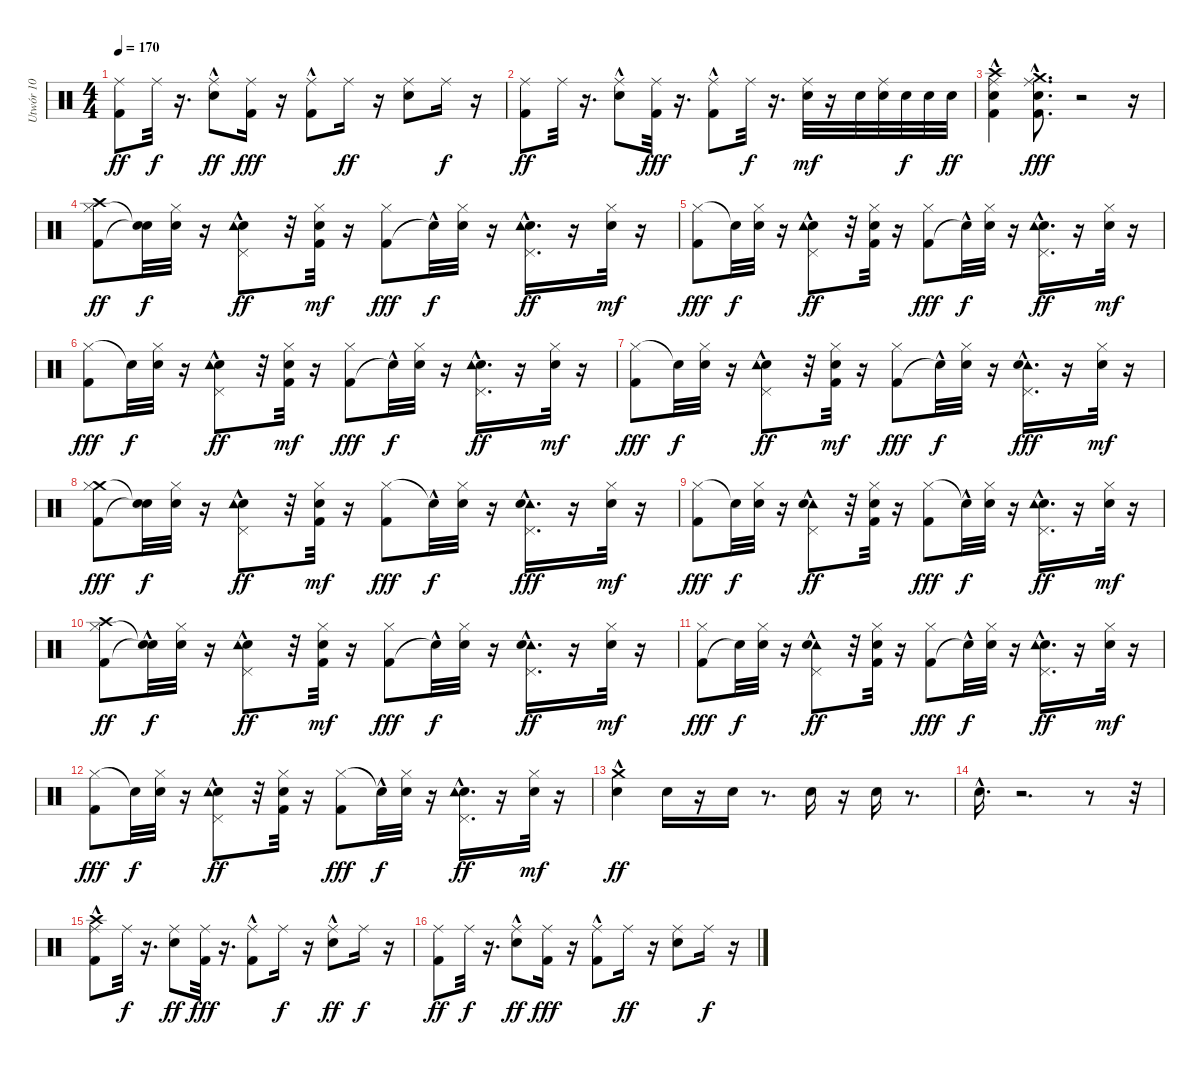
\track ("Utwór 10" "Utwór 10") {instrument percussion}
\staff {score}
\articulation defaults
\ts (4 4)
\tempo 170
\clef neutral
\ks c
("Kick (hit) 2" "Ride (middle)").8{dy ff} "Ride (middle)".32{dy f} r.16{d} ("Ride (middle)" "Snare (hit) 2"{hac}).8{dy ff} ("Ride (middle)" "Kick (hit) 2").16{dy fff} r.16 ("Ride (middle)" "Kick (hit) 2"{hac}).8 "Ride (middle)".16{dy ff} r.16 ("Snare (hit) 2" "Ride (middle)").8 "Ride (middle)".16{dy f} r.16 |
("Kick (hit) 2" "Ride (middle)").8{dy ff} "Ride (middle)".32 r.16{d} ("Snare (hit) 2"{hac} "Ride (middle)").8 ("Ride (middle)" "Kick (hit) 2").32{dy fff} r.16{d} ("Ride (middle)" "Kick (hit) 2"{hac}).8 "Ride (middle)".32{dy f} r.16{d} ("Ride (middle)" "Snare (hit) 2").32{dy mf} r.16 "Snare (hit) 2".32 ("Snare (hit) 2" "Ride (middle)").32 "Snare (hit) 2".32{dy f} "Snare (hit) 2".32 "Snare (hit) 2".32{dy ff} |
("Kick (hit) 2"{hac} "Ride (middle)" "Crash high (hit)" "Snare (hit) 2").4 ("Crash medium (hit)" "Kick (hit) 2"{hac} "Ride (middle)" "Snare (hit) 2").8{d dy fff} r.2 r.16 |
("Kick (hit) 2" "Hi-Hat (closed)" "Crash high (hit)").8{dy ff} ("Snare (hit)"{t} "Snare (hit)"{t}).32{dy f} ("Snare (hit) 2" "Hi-Hat (closed)").32 r.16 ("Snare (hit) 2"{hac} "Pedal Hi-Hat (hit)" "Tambourine (hit)").8{dy ff} r.32 ("Kick (hit) 2" "Snare (hit) 2" "Hi-Hat (closed)").32{dy mf} r.16 ("Kick (hit) 2" "Hi-Hat (closed)").8{dy fff} "Snare (hit)"{hac t}.32{dy f} ("Hi-Hat (closed)" "Snare (hit) 2").32 r.16 ("Snare (hit) 2" "Pedal Hi-Hat (hit)"{hac} "Tambourine (hit)"{hac}).16{d dy ff} r.16 ("Snare (hit) 2" "Hi-Hat (closed)").32{dy mf} r.16 |
("Hi-Hat (closed)" "Kick (hit) 2").8{dy fff} "Snare (hit)"{t}.32{dy f} ("Snare (hit) 2" "Hi-Hat (closed)").32 r.16 ("Snare (hit) 2"{hac} "Pedal Hi-Hat (hit)" "Tambourine (hit)").8{dy ff} r.32 ("Snare (hit) 2" "Hi-Hat (closed)" "Kick (hit) 2").32 r.16 ("Kick (hit) 2" "Hi-Hat (closed)").8{dy fff} "Snare (hit)"{hac t}.32{dy f} ("Hi-Hat (closed)" "Snare (hit) 2").32 r.16 ("Snare (hit) 2" "Tambourine (hit)"{hac} "Pedal Hi-Hat (hit)"{hac}).16{d dy ff} r.16 ("Hi-Hat (closed)" "Snare (hit) 2").32{dy mf} r.16 |
("Hi-Hat (closed)" "Kick (hit) 2").8{dy fff} "Snare (hit)"{t}.32{dy f} ("Snare (hit) 2" "Hi-Hat (closed)").32 r.16 ("Snare (hit) 2"{hac} "Pedal Hi-Hat (hit)" "Tambourine (hit)").8{dy ff} r.32 ("Kick (hit) 2" "Snare (hit) 2" "Hi-Hat (closed)").32{dy mf} r.16 ("Kick (hit) 2" "Hi-Hat (closed)").8{dy fff} "Snare (hit)"{hac t}.32{dy f} ("Snare (hit) 2" "Hi-Hat (closed)").32 r.16 ("Pedal Hi-Hat (hit)"{hac} "Snare (hit) 2" "Tambourine (hit)"{hac}).16{d dy ff} r.16 ("Hi-Hat (closed)" "Snare (hit) 2").32{dy mf} r.16 |
("Hi-Hat (closed)" "Kick (hit) 2").8{dy fff} "Snare (hit)"{t}.32{dy f} ("Hi-Hat (closed)" "Snare (hit) 2").32 r.16 ("Pedal Hi-Hat (hit)" "Snare (hit) 2"{hac} "Tambourine (hit)").8{dy ff} r.32 ("Kick (hit) 2" "Snare (hit) 2" "Hi-Hat (closed)").32{dy mf} r.16 ("Kick (hit) 2" "Hi-Hat (closed)").8{dy fff} "Snare (hit)"{hac t}.32{dy f} ("Hi-Hat (closed)" "Snare (hit) 2").32 r.16 ("Pedal Hi-Hat (hit)"{hac} "Tambourine (hit)"{hac} "Snare (hit) 2").16{d dy fff} r.16 ("Hi-Hat (closed)" "Snare (hit) 2").32{dy mf} r.16 |
("Kick (hit) 2" "Crash medium (hit)" "Hi-Hat (closed)").8{dy fff} ("Snare (hit)"{t} "Snare (hit)"{t}).32{dy f} ("Hi-Hat (closed)" "Snare (hit) 2").32 r.16 ("Pedal Hi-Hat (hit)" "Snare (hit) 2"{hac} "Tambourine (hit)").8{dy ff} r.32 ("Kick (hit) 2" "Snare (hit) 2" "Hi-Hat (closed)").32{dy mf} r.16 ("Hi-Hat (closed)" "Kick (hit) 2").8{dy fff} "Snare (hit)"{hac t}.32{dy f} ("Hi-Hat (closed)" "Snare (hit) 2").32 r.16 ("Pedal Hi-Hat (hit)"{hac} "Tambourine (hit)"{hac} "Snare (hit) 2").16{d dy fff} r.16 ("Snare (hit) 2" "Hi-Hat (closed)").32{dy mf} r.16 |
("Hi-Hat (closed)" "Kick (hit) 2").8{dy fff} "Snare (hit)"{t}.32{dy f} ("Snare (hit) 2" "Hi-Hat (closed)").32 r.16 ("Pedal Hi-Hat (hit)" "Tambourine (hit)" "Snare (hit) 2"{hac}).8{dy ff} r.32 ("Hi-Hat (closed)" "Snare (hit) 2" "Kick (hit) 2").32 r.16 ("Hi-Hat (closed)" "Kick (hit) 2").8{dy fff} "Snare (hit)"{hac t}.32{dy f} ("Hi-Hat (closed)" "Snare (hit) 2").32 r.16 ("Snare (hit) 2" "Tambourine (hit)"{hac} "Pedal Hi-Hat (hit)"{hac}).16{d dy ff} r.16 ("Snare (hit) 2" "Hi-Hat (closed)").32{dy mf} r.16 |
("Hi-Hat (closed)" "Kick (hit) 2" "Crash high (hit)").8{dy ff} ("Snare (hit)"{t} "Snare (hit)"{hac t}).32{dy f} ("Snare (hit) 2" "Hi-Hat (closed)").32 r.16 ("Pedal Hi-Hat (hit)" "Snare (hit) 2"{hac} "Tambourine (hit)").8{dy ff} r.32 ("Hi-Hat (closed)" "Kick (hit) 2" "Snare (hit) 2").32{dy mf} r.16 ("Kick (hit) 2" "Hi-Hat (closed)").8{dy fff} "Snare (hit)"{hac t}.32{dy f} ("Snare (hit) 2" "Hi-Hat (closed)").32 r.16 ("Tambourine (hit)"{hac} "Snare (hit) 2" "Pedal Hi-Hat (hit)"{hac}).16{d dy ff} r.16 ("Hi-Hat (closed)" "Snare (hit) 2").32{dy mf} r.16 |
("Kick (hit) 2" "Hi-Hat (closed)").8{dy fff} "Snare (hit)"{t}.32{dy f} ("Snare (hit) 2" "Hi-Hat (closed)").32 r.16 ("Tambourine (hit)" "Snare (hit) 2"{hac} "Pedal Hi-Hat (hit)").8{dy ff} r.32 ("Snare (hit) 2" "Kick (hit) 2" "Hi-Hat (closed)").32 r.16 ("Kick (hit) 2" "Hi-Hat (closed)").8{dy fff} "Snare (hit)"{hac t}.32{dy f} ("Snare (hit) 2" "Hi-Hat (closed)").32 r.16 ("Snare (hit) 2" "Pedal Hi-Hat (hit)"{hac} "Tambourine (hit)"{hac}).16{d dy ff} r.16 ("Snare (hit) 2" "Hi-Hat (closed)").32{dy mf} r.16 |
("Hi-Hat (closed)" "Kick (hit) 2").8{dy fff} "Snare (hit)"{t}.32{dy f} ("Snare (hit) 2" "Hi-Hat (closed)").32 r.16 ("Pedal Hi-Hat (hit)" "Snare (hit) 2"{hac} "Tambourine (hit)").8{dy ff} r.32 ("Hi-Hat (closed)" "Snare (hit) 2" "Kick (hit) 2").32 r.16 ("Hi-Hat (closed)" "Kick (hit) 2").8{dy fff} "Snare (hit)"{hac t}.32{dy f} ("Snare (hit) 2" "Hi-Hat (closed)").32 r.16 ("Snare (hit) 2" "Tambourine (hit)"{hac} "Pedal Hi-Hat (hit)"{hac}).16{d dy ff} r.16 ("Snare (hit) 2" "Hi-Hat (closed)").32{dy mf} r.16 |
("Crash medium (hit)" "Snare (hit) 2"{hac}).4{dy ff} "Snare (hit) 2".16 r.16 "Snare (hit) 2".16 r.8{d} "Snare (hit) 2".16 r.16 "Snare (hit) 2".16 r.8{d} |
"Snare (hit) 2"{hac}.16{d} r.2{d} r.8 r.32 |
("Kick (hit) 2" "Crash high (hit)"{hac} "Ride (middle)").8 "Ride (middle)".32{dy f} r.16{d} ("Snare (hit) 2" "Ride (middle)").8{dy ff} ("Kick (hit) 2" "Ride (middle)").32{dy fff} r.16{d} ("Ride (middle)" "Kick (hit) 2"{hac}).8 "Ride (middle)".16{dy f} r.16 ("Ride (middle)" "Snare (hit) 2"{hac}).8{dy ff} "Ride (middle)".16{dy f} r.16 |
("Kick (hit) 2" "Ride (middle)").8{dy ff} "Ride (middle)".32{dy f} r.16{d} ("Snare (hit) 2"{hac} "Ride (middle)").8{dy ff} ("Ride (middle)" "Kick (hit) 2").16{dy fff} r.16 ("Ride (middle)" "Kick (hit) 2"{hac}).8 "Ride (middle)".16{dy ff} r.16 ("Ride (middle)" "Snare (hit) 2").8 "Ride (middle)".16{dy f} r.16
